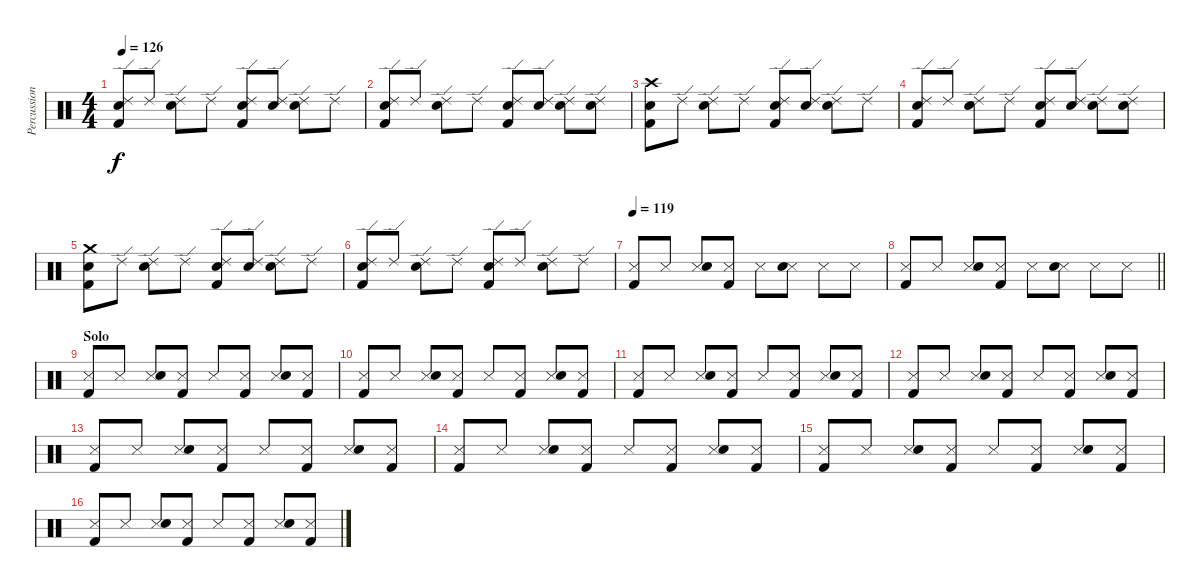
\track ("Percussion" "Percussion") {instrument percussion}
\staff {score}
\articulation defaults
\ts (4 4)
\tempo 126
\clef neutral
\ks c
("Ride (edge) 2" "Snare (hit) 2" "Kick (hit) 2").8{dy f} "Ride (edge) 2".8 ("Ride (edge) 2" "Snare (hit) 2").8 "Ride (edge) 2".8 ("Ride (edge) 2" "Snare (hit) 2" "Kick (hit) 2").8 ("Ride (edge) 2" "Snare (hit) 2").8 ("Ride (edge) 2" "Snare (hit) 2").8 "Ride (edge) 2".8 |
("Ride (edge) 2" "Snare (hit) 2" "Kick (hit) 2").8 "Ride (edge) 2".8 ("Ride (edge) 2" "Snare (hit) 2").8 "Ride (edge) 2".8 ("Ride (edge) 2" "Snare (hit) 2" "Kick (hit) 2").8 ("Ride (edge) 2" "Snare (hit) 2").8 ("Ride (edge) 2" "Snare (hit) 2").8 ("Ride (edge) 2" "Snare (hit) 2").8 |
("Crash high (hit)" "Snare (hit) 2" "Kick (hit) 2").8 "Ride (edge) 2".8 ("Ride (edge) 2" "Snare (hit) 2").8 "Ride (edge) 2".8 ("Ride (edge) 2" "Snare (hit) 2" "Kick (hit) 2").8 ("Ride (edge) 2" "Snare (hit) 2").8 ("Ride (edge) 2" "Snare (hit) 2").8 "Ride (edge) 2".8 |
("Ride (edge) 2" "Snare (hit) 2" "Kick (hit) 2").8 "Ride (edge) 2".8 ("Ride (edge) 2" "Snare (hit) 2").8 "Ride (edge) 2".8 ("Ride (edge) 2" "Snare (hit) 2" "Kick (hit) 2").8 ("Ride (edge) 2" "Snare (hit) 2").8 ("Ride (edge) 2" "Snare (hit) 2").8 ("Ride (edge) 2" "Snare (hit) 2").8 |
("Crash medium (hit)" "Snare (hit) 2" "Kick (hit) 2").8 "Ride (edge) 2".8 ("Ride (edge) 2" "Snare (hit) 2").8 "Ride (edge) 2".8 ("Ride (edge) 2" "Snare (hit) 2" "Kick (hit) 2").8 ("Ride (edge) 2" "Snare (hit) 2").8 ("Ride (edge) 2" "Snare (hit) 2").8 "Ride (edge) 2".8 |
("Ride (edge) 2" "Snare (hit) 2" "Kick (hit) 2").8 "Ride (edge) 2".8 ("Ride (edge) 2" "Snare (hit) 2").8 "Ride (edge) 2".8 ("Ride (edge) 2" "Snare (hit) 2" "Kick (hit) 2").8 "Ride (edge) 2".8 ("Ride (edge) 2" "Snare (hit) 2").8 "Ride (edge) 2".8 |
\tempo 119
("Snare (side stick) 3" "Kick (hit) 2").8 "Snare (side stick) 3".8 ("Snare (side stick) 3" "Snare (hit) 2").8 ("Snare (side stick) 3" "Kick (hit) 2").8 "Snare (side stick) 3".8 ("Snare (side stick) 3" "Snare (hit) 2").8 "Snare (side stick) 3".8 "Snare (side stick) 3".8 |
\barLineRight lightlight
("Snare (side stick) 3" "Kick (hit) 2").8 "Snare (side stick) 3".8 ("Snare (side stick) 3" "Snare (hit) 2").8 ("Snare (side stick) 3" "Kick (hit) 2").8 "Snare (side stick) 3".8 ("Snare (side stick) 3" "Snare (hit) 2").8 "Snare (side stick) 3".8 "Snare (side stick) 3".8 |
\section ("" "Solo")
("Snare (side stick) 3" "Kick (hit) 2").8 "Snare (side stick) 3".8 ("Snare (side stick) 3" "Snare (hit) 2").8 ("Snare (side stick) 3" "Kick (hit) 2").8 "Snare (side stick) 3".8 ("Snare (side stick) 3" "Kick (hit) 2").8 ("Snare (side stick) 3" "Snare (hit) 2").8 ("Snare (side stick) 3" "Kick (hit) 2").8 |
("Snare (side stick) 3" "Kick (hit) 2").8 "Snare (side stick) 3".8 ("Snare (side stick) 3" "Snare (hit) 2").8 ("Snare (side stick) 3" "Kick (hit) 2").8 "Snare (side stick) 3".8 ("Snare (side stick) 3" "Kick (hit) 2").8 ("Snare (side stick) 3" "Snare (hit) 2").8 ("Snare (side stick) 3" "Kick (hit) 2").8 |
("Snare (side stick) 3" "Kick (hit) 2").8 "Snare (side stick) 3".8 ("Snare (side stick) 3" "Snare (hit) 2").8 ("Snare (side stick) 3" "Kick (hit) 2").8 "Snare (side stick) 3".8 ("Snare (side stick) 3" "Kick (hit) 2").8 ("Snare (side stick) 3" "Snare (hit) 2").8 ("Snare (side stick) 3" "Kick (hit) 2").8 |
("Snare (side stick) 3" "Kick (hit) 2").8 "Snare (side stick) 3".8 ("Snare (side stick) 3" "Snare (hit) 2").8 ("Snare (side stick) 3" "Kick (hit) 2").8 "Snare (side stick) 3".8 ("Snare (side stick) 3" "Kick (hit) 2").8 ("Snare (side stick) 3" "Snare (hit) 2").8 ("Snare (side stick) 3" "Kick (hit) 2").8 |
("Snare (side stick) 3" "Kick (hit) 2").8 "Snare (side stick) 3".8 ("Snare (side stick) 3" "Snare (hit) 2").8 ("Snare (side stick) 3" "Kick (hit) 2").8 "Snare (side stick) 3".8 ("Snare (side stick) 3" "Kick (hit) 2").8 ("Snare (side stick) 3" "Snare (hit) 2").8 ("Snare (side stick) 3" "Kick (hit) 2").8 |
("Snare (side stick) 3" "Kick (hit) 2").8 "Snare (side stick) 3".8 ("Snare (side stick) 3" "Snare (hit) 2").8 ("Snare (side stick) 3" "Kick (hit) 2").8 "Snare (side stick) 3".8 ("Snare (side stick) 3" "Kick (hit) 2").8 ("Snare (side stick) 3" "Snare (hit) 2").8 ("Snare (side stick) 3" "Kick (hit) 2").8 |
("Snare (side stick) 3" "Kick (hit) 2").8 "Snare (side stick) 3".8 ("Snare (side stick) 3" "Snare (hit) 2").8 ("Snare (side stick) 3" "Kick (hit) 2").8 "Snare (side stick) 3".8 ("Snare (side stick) 3" "Kick (hit) 2").8 ("Snare (side stick) 3" "Snare (hit) 2").8 ("Snare (side stick) 3" "Kick (hit) 2").8 |
("Snare (side stick) 3" "Kick (hit) 2").8 "Snare (side stick) 3".8 ("Snare (side stick) 3" "Snare (hit) 2").8 ("Snare (side stick) 3" "Kick (hit) 2").8 "Snare (side stick) 3".8 ("Snare (side stick) 3" "Kick (hit) 2").8 ("Snare (side stick) 3" "Snare (hit) 2").8 ("Snare (side stick) 3" "Kick (hit) 2").8
